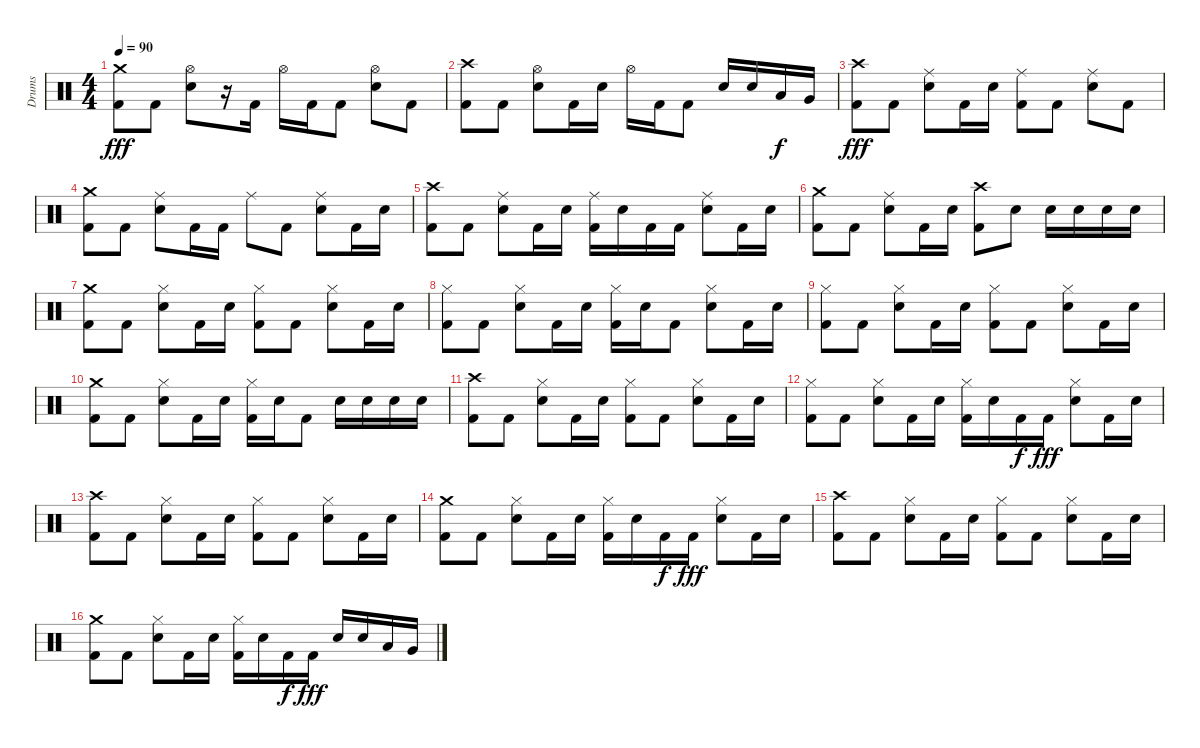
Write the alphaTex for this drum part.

\track ("Drums" "Drums") {instrument percussion}
\staff {score}
\articulation defaults
\ts (4 4)
\tempo 90
\clef neutral
\ks c
("Crash medium (hit)" "Kick (hit) 2").8{dy fff} "Kick (hit) 2".8 ("Hi-Hat (open)" "Snare (hit) 2").8 r.16 "Kick (hit) 2".16 "Hi-Hat (open)".16 "Kick (hit) 2".16 "Kick (hit) 2".8 ("Hi-Hat (open)" "Snare (hit) 2").8 "Kick (hit) 2".8 |
("Crash high (hit)" "Kick (hit) 2").8 "Kick (hit) 2".8 ("Hi-Hat (open)" "Snare (hit) 2").8 "Kick (hit) 2".16 "Snare (hit) 2".16 "Hi-Hat (open)".16 "Kick (hit) 2".16 "Kick (hit) 2".8 "Snare (hit) 2".16 "Snare (hit) 2".16 "Low Tom (hit)".16{dy f} "Very Low Tom (hit)".16 |
("Crash high (hit)" "Kick (hit) 2").8{dy fff} "Kick (hit) 2".8 ("Ride (middle)" "Snare (hit) 2").8 "Kick (hit) 2".16 "Snare (hit) 2".16 ("Ride (middle)" "Kick (hit) 2").8 "Kick (hit) 2".8 ("Ride (middle)" "Snare (hit) 2").8 "Kick (hit) 2".8 |
("Crash medium (hit)" "Kick (hit) 2").8 "Kick (hit) 2".8 ("Ride (middle)" "Snare (hit) 2").8 "Kick (hit) 2".16 "Kick (hit) 2".16 "Ride (middle)".8 "Kick (hit) 2".8 ("Ride (middle)" "Snare (hit) 2").8 "Kick (hit) 2".16 "Snare (hit) 2".16 |
("Crash high (hit)" "Kick (hit) 2").8 "Kick (hit) 2".8 ("Ride (middle)" "Snare (hit) 2").8 "Kick (hit) 2".16 "Snare (hit) 2".16 ("Ride (middle)" "Kick (hit) 2").16 "Snare (hit) 2".16 "Kick (hit) 2".16 "Kick (hit) 2".16 ("Ride (middle)" "Snare (hit) 2").8 "Kick (hit) 2".16 "Snare (hit) 2".16 |
("Crash medium (hit)" "Kick (hit) 2").8 "Kick (hit) 2".8 ("Ride (middle)" "Snare (hit) 2").8 "Kick (hit) 2".16 "Snare (hit) 2".16 ("Crash high (hit)" "Kick (hit) 2").8 "Snare (hit) 2".8 "Snare (hit) 2".16 "Snare (hit) 2".16 "Snare (hit) 2".16 "Snare (hit) 2".16 |
("Crash medium (hit)" "Kick (hit) 2").8 "Kick (hit) 2".8 ("Hi-Hat (closed)" "Snare (hit) 2").8 "Kick (hit) 2".16 "Snare (hit) 2".16 ("Hi-Hat (closed)" "Kick (hit) 2").8 "Kick (hit) 2".8 ("Hi-Hat (closed)" "Snare (hit) 2").8 "Kick (hit) 2".16 "Snare (hit) 2".16 |
("Hi-Hat (closed)" "Kick (hit) 2").8 "Kick (hit) 2".8 ("Hi-Hat (closed)" "Snare (hit) 2").8 "Kick (hit) 2".16 "Snare (hit) 2".16 ("Hi-Hat (closed)" "Kick (hit) 2").16 "Snare (hit) 2".16 "Kick (hit) 2".8 ("Hi-Hat (closed)" "Snare (hit) 2").8 "Kick (hit) 2".16 "Snare (hit) 2".16 |
("Hi-Hat (closed)" "Kick (hit) 2").8 "Kick (hit) 2".8 ("Hi-Hat (closed)" "Snare (hit) 2").8 "Kick (hit) 2".16 "Snare (hit) 2".16 ("Hi-Hat (closed)" "Kick (hit) 2").8 "Kick (hit) 2".8 ("Hi-Hat (closed)" "Snare (hit) 2").8 "Kick (hit) 2".16 "Snare (hit) 2".16 |
("Crash medium (hit)" "Kick (hit) 2").8 "Kick (hit) 2".8 ("Hi-Hat (closed)" "Snare (hit) 2").8 "Kick (hit) 2".16 "Snare (hit) 2".16 ("Hi-Hat (closed)" "Kick (hit) 2").16 "Snare (hit) 2".16 "Kick (hit) 2".8 "Snare (hit) 2".16 "Snare (hit) 2".16 "Snare (hit) 2".16 "Snare (hit) 2".16 |
("Crash high (hit)" "Kick (hit) 2").8 "Kick (hit) 2".8 ("Hi-Hat (closed)" "Snare (hit) 2").8 "Kick (hit) 2".16 "Snare (hit) 2".16 ("Hi-Hat (closed)" "Kick (hit) 2").8 "Kick (hit) 2".8 ("Hi-Hat (closed)" "Snare (hit) 2").8 "Kick (hit) 2".16 "Snare (hit) 2".16 |
("Hi-Hat (closed)" "Kick (hit) 2").8 "Kick (hit) 2".8 ("Hi-Hat (closed)" "Snare (hit) 2").8 "Kick (hit) 2".16 "Snare (hit) 2".16 ("Hi-Hat (closed)" "Kick (hit) 2").16 "Snare (hit) 2".16 "Kick (hit) 2".16{dy f} "Kick (hit) 2".16{dy fff} ("Hi-Hat (closed)" "Snare (hit) 2").8 "Kick (hit) 2".16 "Snare (hit) 2".16 |
("Crash high (hit)" "Kick (hit) 2").8 "Kick (hit) 2".8 ("Hi-Hat (closed)" "Snare (hit) 2").8 "Kick (hit) 2".16 "Snare (hit) 2".16 ("Hi-Hat (closed)" "Kick (hit) 2").8 "Kick (hit) 2".8 ("Hi-Hat (closed)" "Snare (hit) 2").8 "Kick (hit) 2".16 "Snare (hit) 2".16 |
("Crash medium (hit)" "Kick (hit) 2").8 "Kick (hit) 2".8 ("Hi-Hat (closed)" "Snare (hit) 2").8 "Kick (hit) 2".16 "Snare (hit) 2".16 ("Hi-Hat (closed)" "Kick (hit) 2").16 "Snare (hit) 2".16 "Kick (hit) 2".16{dy f} "Kick (hit) 2".16{dy fff} ("Hi-Hat (closed)" "Snare (hit) 2").8 "Kick (hit) 2".16 "Snare (hit) 2".16 |
("Crash high (hit)" "Kick (hit) 2").8 "Kick (hit) 2".8 ("Hi-Hat (closed)" "Snare (hit) 2").8 "Kick (hit) 2".16 "Snare (hit) 2".16 ("Hi-Hat (closed)" "Kick (hit) 2").8 "Kick (hit) 2".8 ("Hi-Hat (closed)" "Snare (hit) 2").8 "Kick (hit) 2".16 "Snare (hit) 2".16 |
("Crash medium (hit)" "Kick (hit) 2").8 "Kick (hit) 2".8 ("Hi-Hat (closed)" "Snare (hit) 2").8 "Kick (hit) 2".16 "Snare (hit) 2".16 ("Hi-Hat (closed)" "Kick (hit) 2").16 "Snare (hit) 2".16 "Kick (hit) 2".16{dy f} "Kick (hit) 2".16{dy fff} "Snare (hit) 2".16 "Snare (hit) 2".16 "Low Tom (hit)".16 "Very Low Tom (hit)".16
